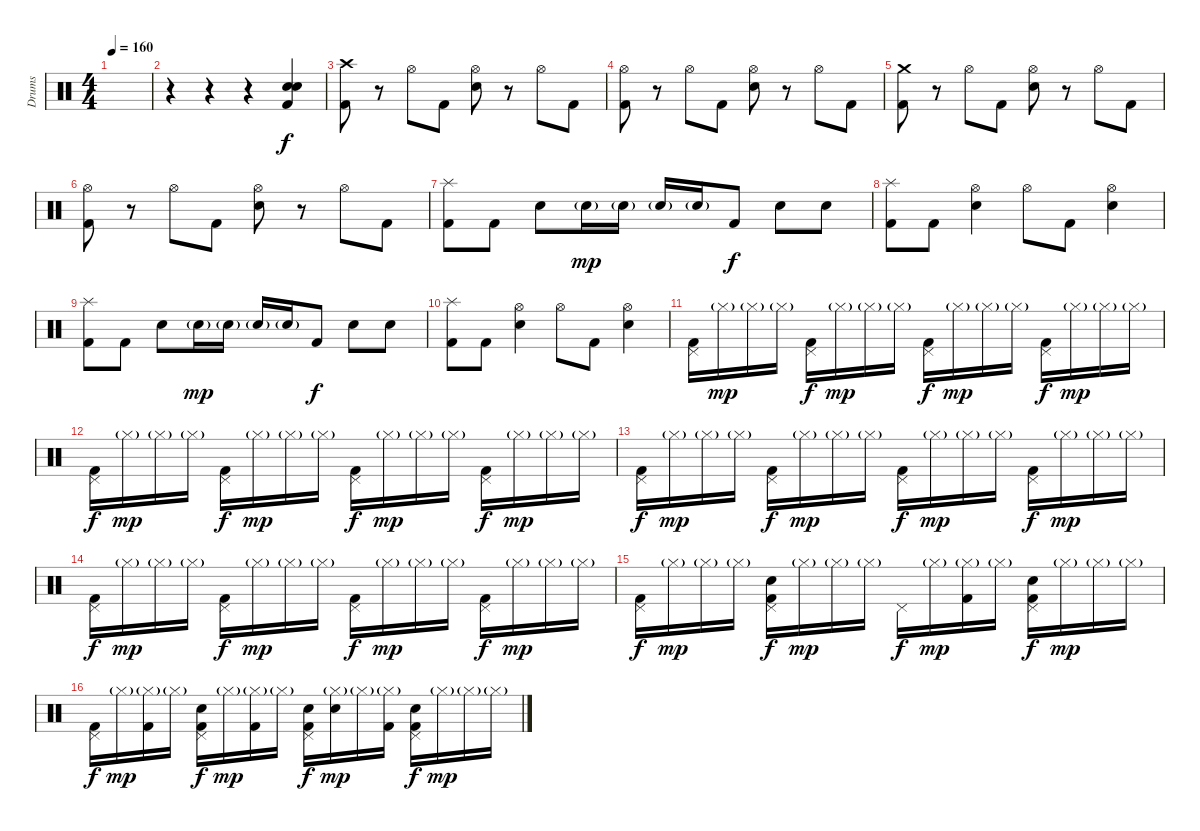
\track ("Drums" "Drums") {instrument percussion}
\staff {score}
\articulation defaults
\ts (4 4)
\tempo 160
\clef neutral
\ks c
|
r.4{volume 16} r.4 r.4 ("Electric Snare (hit)" "Electric Snare (hit)" "Kick (hit) 2").4{dy f} |
("Crash high (hit)" "Kick (hit) 2").8 r.8 "Hi-Hat (open)".8 "Kick (hit) 2".8 ("Hi-Hat (open)" "Electric Snare (hit)").8 r.8 "Hi-Hat (open)".8 "Kick (hit) 2".8 |
("Hi-Hat (open)" "Kick (hit) 2").8 r.8 "Hi-Hat (open)".8 "Kick (hit) 2".8 ("Hi-Hat (open)" "Electric Snare (hit)").8 r.8 "Hi-Hat (open)".8 "Kick (hit) 2".8 |
("Crash medium (hit)" "Kick (hit) 2").8 r.8 "Hi-Hat (open)".8 "Kick (hit) 2".8 ("Hi-Hat (open)" "Electric Snare (hit)").8 r.8 "Hi-Hat (open)".8 "Kick (hit) 2".8 |
("Hi-Hat (open)" "Kick (hit) 2").8 r.8 "Hi-Hat (open)".8 "Kick (hit) 2".8 ("Hi-Hat (open)" "Electric Snare (hit)").8 r.8 "Hi-Hat (open)".8 "Kick (hit) 2".8 |
("Splash (hit)" "Kick (hit) 2").8 "Kick (hit) 2".8 "Electric Snare (hit)".8 "Electric Snare (hit)"{g}.16{dy mp} "Electric Snare (hit)"{g}.16 "Electric Snare (hit)"{g}.16 "Electric Snare (hit)"{g}.16 "Kick (hit) 2".8{dy f} "Electric Snare (hit)".8 "Electric Snare (hit)".8 |
("Splash (hit)" "Kick (hit) 2").8 "Kick (hit) 2".8 ("Hi-Hat (open)" "Electric Snare (hit)").4 "Hi-Hat (open)".8 "Kick (hit) 2".8 ("Hi-Hat (open)" "Electric Snare (hit)").4 |
("Splash (hit)" "Kick (hit) 2").8 "Kick (hit) 2".8 "Electric Snare (hit)".8 "Electric Snare (hit)"{g}.16{dy mp} "Electric Snare (hit)"{g}.16 "Electric Snare (hit)"{g}.16 "Electric Snare (hit)"{g}.16 "Kick (hit) 2".8{dy f} "Electric Snare (hit)".8 "Electric Snare (hit)".8 |
("Splash (hit)" "Kick (hit) 2").8 "Kick (hit) 2".8 ("Hi-Hat (open)" "Electric Snare (hit)").4 "Hi-Hat (open)".8 "Kick (hit) 2".8 ("Hi-Hat (open)" "Electric Snare (hit)").4 |
("Pedal Hi-Hat (hit)" "Kick (hit) 2").16 "Hi-Hat (closed)"{g}.16{dy mp} "Hi-Hat (closed)"{g}.16 "Hi-Hat (closed)"{g}.16 ("Pedal Hi-Hat (hit)" "Kick (hit) 2").16{dy f} "Hi-Hat (closed)"{g}.16{dy mp} "Hi-Hat (closed)"{g}.16 "Hi-Hat (closed)"{g}.16 ("Pedal Hi-Hat (hit)" "Kick (hit) 2").16{dy f} "Hi-Hat (closed)"{g}.16{dy mp} "Hi-Hat (closed)"{g}.16 "Hi-Hat (closed)"{g}.16 ("Pedal Hi-Hat (hit)" "Kick (hit) 2").16{dy f} "Hi-Hat (closed)"{g}.16{dy mp} "Hi-Hat (closed)"{g}.16 "Hi-Hat (closed)"{g}.16 |
("Pedal Hi-Hat (hit)" "Kick (hit) 2").16{dy f} "Hi-Hat (closed)"{g}.16{dy mp} "Hi-Hat (closed)"{g}.16 "Hi-Hat (closed)"{g}.16 ("Pedal Hi-Hat (hit)" "Kick (hit) 2").16{dy f} "Hi-Hat (closed)"{g}.16{dy mp} "Hi-Hat (closed)"{g}.16 "Hi-Hat (closed)"{g}.16 ("Pedal Hi-Hat (hit)" "Kick (hit) 2").16{dy f} "Hi-Hat (closed)"{g}.16{dy mp} "Hi-Hat (closed)"{g}.16 "Hi-Hat (closed)"{g}.16 ("Pedal Hi-Hat (hit)" "Kick (hit) 2").16{dy f} "Hi-Hat (closed)"{g}.16{dy mp} "Hi-Hat (closed)"{g}.16 "Hi-Hat (closed)"{g}.16 |
("Pedal Hi-Hat (hit)" "Kick (hit) 2").16{dy f} "Hi-Hat (closed)"{g}.16{dy mp} "Hi-Hat (closed)"{g}.16 "Hi-Hat (closed)"{g}.16 ("Pedal Hi-Hat (hit)" "Kick (hit) 2").16{dy f} "Hi-Hat (closed)"{g}.16{dy mp} "Hi-Hat (closed)"{g}.16 "Hi-Hat (closed)"{g}.16 ("Pedal Hi-Hat (hit)" "Kick (hit) 2").16{dy f} "Hi-Hat (closed)"{g}.16{dy mp} "Hi-Hat (closed)"{g}.16 "Hi-Hat (closed)"{g}.16 ("Pedal Hi-Hat (hit)" "Kick (hit) 2").16{dy f} "Hi-Hat (closed)"{g}.16{dy mp} "Hi-Hat (closed)"{g}.16 "Hi-Hat (closed)"{g}.16 |
("Pedal Hi-Hat (hit)" "Kick (hit) 2").16{dy f} "Hi-Hat (closed)"{g}.16{dy mp} "Hi-Hat (closed)"{g}.16 "Hi-Hat (closed)"{g}.16 ("Pedal Hi-Hat (hit)" "Kick (hit) 2").16{dy f} "Hi-Hat (closed)"{g}.16{dy mp} "Hi-Hat (closed)"{g}.16 "Hi-Hat (closed)"{g}.16 ("Pedal Hi-Hat (hit)" "Kick (hit) 2").16{dy f} "Hi-Hat (closed)"{g}.16{dy mp} "Hi-Hat (closed)"{g}.16 "Hi-Hat (closed)"{g}.16 ("Pedal Hi-Hat (hit)" "Kick (hit) 2").16{dy f} "Hi-Hat (closed)"{g}.16{dy mp} "Hi-Hat (closed)"{g}.16 "Hi-Hat (closed)"{g}.16 |
("Pedal Hi-Hat (hit)" "Kick (hit) 2").16{dy f} "Hi-Hat (closed)"{g}.16{dy mp} "Hi-Hat (closed)"{g}.16 "Hi-Hat (closed)"{g}.16 ("Pedal Hi-Hat (hit)" "Electric Snare (hit)" "Kick (hit) 2").16{dy f} "Hi-Hat (closed)"{g}.16{dy mp} "Hi-Hat (closed)"{g}.16 "Hi-Hat (closed)"{g}.16 "Pedal Hi-Hat (hit)".16{dy f} "Hi-Hat (closed)"{g}.16{dy mp} ("Hi-Hat (closed)"{g} "Kick (hit) 2").16 "Hi-Hat (closed)"{g}.16 ("Pedal Hi-Hat (hit)" "Electric Snare (hit)" "Kick (hit) 2").16{dy f} "Hi-Hat (closed)"{g}.16{dy mp} "Hi-Hat (closed)"{g}.16 "Hi-Hat (closed)"{g}.16 |
("Pedal Hi-Hat (hit)" "Kick (hit) 2").16{dy f} "Hi-Hat (closed)"{g}.16{dy mp} ("Hi-Hat (closed)"{g} "Kick (hit) 2").16 "Hi-Hat (closed)"{g}.16 ("Pedal Hi-Hat (hit)" "Electric Snare (hit)" "Kick (hit) 2").16{dy f} "Hi-Hat (closed)"{g}.16{dy mp} ("Hi-Hat (closed)"{g} "Kick (hit) 2").16 "Hi-Hat (closed)"{g}.16 ("Pedal Hi-Hat (hit)" "Electric Snare (hit)" "Kick (hit) 2").16{dy f} ("Hi-Hat (closed)"{g} "Electric Snare (hit)").16{dy mp} "Hi-Hat (closed)"{g}.16 ("Hi-Hat (closed)"{g} "Kick (hit) 2").16 ("Pedal Hi-Hat (hit)" "Electric Snare (hit)" "Kick (hit) 2").16{dy f} "Hi-Hat (closed)"{g}.16{dy mp} "Hi-Hat (closed)"{g}.16 "Hi-Hat (closed)"{g}.16
